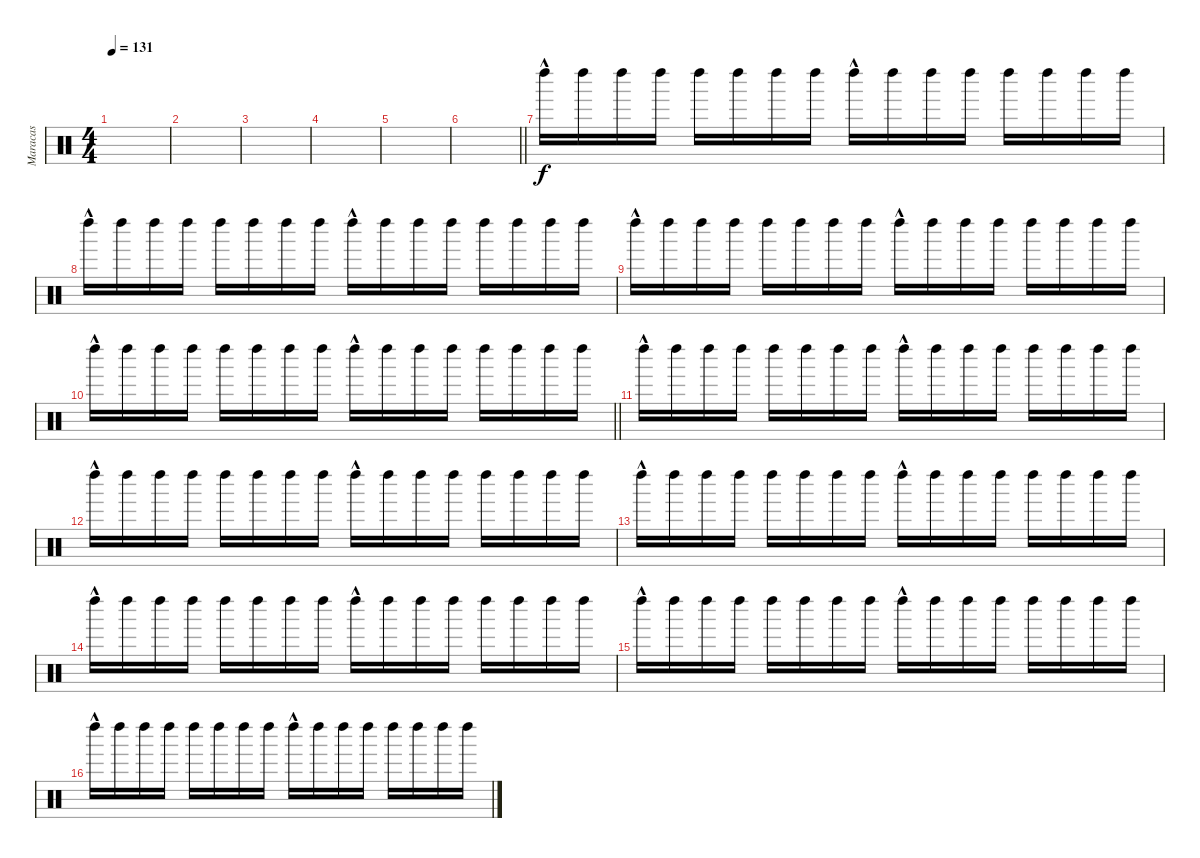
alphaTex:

\track ("Maracas" "Maracas") {instrument percussion}
\staff {score}
\articulation defaults
\ts (4 4)
\tempo 131
\clef neutral
\ks c
|
|
|
|
|
\barLineRight lightlight
|
"Left Maraca (hit)"{hac}.16 "Left Maraca (hit)".16 "Left Maraca (hit)".16 "Left Maraca (hit)".16 "Left Maraca (hit)".16 "Left Maraca (hit)".16 "Left Maraca (hit)".16 "Left Maraca (hit)".16 "Left Maraca (hit)"{hac}.16 "Left Maraca (hit)".16 "Left Maraca (hit)".16 "Left Maraca (hit)".16 "Left Maraca (hit)".16 "Left Maraca (hit)".16 "Left Maraca (hit)".16 "Left Maraca (hit)".16 |
"Left Maraca (hit)"{hac}.16 "Left Maraca (hit)".16 "Left Maraca (hit)".16 "Left Maraca (hit)".16 "Left Maraca (hit)".16 "Left Maraca (hit)".16 "Left Maraca (hit)".16 "Left Maraca (hit)".16 "Left Maraca (hit)"{hac}.16 "Left Maraca (hit)".16 "Left Maraca (hit)".16 "Left Maraca (hit)".16 "Left Maraca (hit)".16 "Left Maraca (hit)".16 "Left Maraca (hit)".16 "Left Maraca (hit)".16 |
"Left Maraca (hit)"{hac}.16 "Left Maraca (hit)".16 "Left Maraca (hit)".16 "Left Maraca (hit)".16 "Left Maraca (hit)".16 "Left Maraca (hit)".16 "Left Maraca (hit)".16 "Left Maraca (hit)".16 "Left Maraca (hit)"{hac}.16 "Left Maraca (hit)".16 "Left Maraca (hit)".16 "Left Maraca (hit)".16 "Left Maraca (hit)".16 "Left Maraca (hit)".16 "Left Maraca (hit)".16 "Left Maraca (hit)".16 |
\barLineRight lightlight "Left Maraca (hit)"{hac}.16 "Left Maraca (hit)".16 "Left Maraca (hit)".16 "Left Maraca (hit)".16 "Left Maraca (hit)".16 "Left Maraca (hit)".16 "Left Maraca (hit)".16 "Left Maraca (hit)".16 "Left Maraca (hit)"{hac}.16 "Left Maraca (hit)".16 "Left Maraca (hit)".16 "Left Maraca (hit)".16 "Left Maraca (hit)".16 "Left Maraca (hit)".16 "Left Maraca (hit)".16 "Left Maraca (hit)".16
|
"Left Maraca (hit)"{hac}.16 "Left Maraca (hit)".16 "Left Maraca (hit)".16 "Left Maraca (hit)".16 "Left Maraca (hit)".16 "Left Maraca (hit)".16 "Left Maraca (hit)".16 "Left Maraca (hit)".16 "Left Maraca (hit)"{hac}.16 "Left Maraca (hit)".16 "Left Maraca (hit)".16 "Left Maraca (hit)".16 "Left Maraca (hit)".16 "Left Maraca (hit)".16 "Left Maraca (hit)".16 "Left Maraca (hit)".16 |
"Left Maraca (hit)"{hac}.16 "Left Maraca (hit)".16 "Left Maraca (hit)".16 "Left Maraca (hit)".16 "Left Maraca (hit)".16 "Left Maraca (hit)".16 "Left Maraca (hit)".16 "Left Maraca (hit)".16 "Left Maraca (hit)"{hac}.16 "Left Maraca (hit)".16 "Left Maraca (hit)".16 "Left Maraca (hit)".16 "Left Maraca (hit)".16 "Left Maraca (hit)".16 "Left Maraca (hit)".16 "Left Maraca (hit)".16 |
"Left Maraca (hit)"{hac}.16 "Left Maraca (hit)".16 "Left Maraca (hit)".16 "Left Maraca (hit)".16 "Left Maraca (hit)".16 "Left Maraca (hit)".16 "Left Maraca (hit)".16 "Left Maraca (hit)".16 "Left Maraca (hit)"{hac}.16 "Left Maraca (hit)".16 "Left Maraca (hit)".16 "Left Maraca (hit)".16 "Left Maraca (hit)".16 "Left Maraca (hit)".16 "Left Maraca (hit)".16 "Left Maraca (hit)".16 |
"Left Maraca (hit)"{hac}.16 "Left Maraca (hit)".16 "Left Maraca (hit)".16 "Left Maraca (hit)".16 "Left Maraca (hit)".16 "Left Maraca (hit)".16 "Left Maraca (hit)".16 "Left Maraca (hit)".16 "Left Maraca (hit)"{hac}.16 "Left Maraca (hit)".16 "Left Maraca (hit)".16 "Left Maraca (hit)".16 "Left Maraca (hit)".16 "Left Maraca (hit)".16 "Left Maraca (hit)".16 "Left Maraca (hit)".16 |
"Left Maraca (hit)"{hac}.16 "Left Maraca (hit)".16 "Left Maraca (hit)".16 "Left Maraca (hit)".16 "Left Maraca (hit)".16 "Left Maraca (hit)".16 "Left Maraca (hit)".16 "Left Maraca (hit)".16 "Left Maraca (hit)"{hac}.16 "Left Maraca (hit)".16 "Left Maraca (hit)".16 "Left Maraca (hit)".16 "Left Maraca (hit)".16 "Left Maraca (hit)".16 "Left Maraca (hit)".16 "Left Maraca (hit)".16 |
"Left Maraca (hit)"{hac}.16 "Left Maraca (hit)".16 "Left Maraca (hit)".16 "Left Maraca (hit)".16 "Left Maraca (hit)".16 "Left Maraca (hit)".16 "Left Maraca (hit)".16 "Left Maraca (hit)".16 "Left Maraca (hit)"{hac}.16 "Left Maraca (hit)".16 "Left Maraca (hit)".16 "Left Maraca (hit)".16 "Left Maraca (hit)".16 "Left Maraca (hit)".16 "Left Maraca (hit)".16 "Left Maraca (hit)".16
